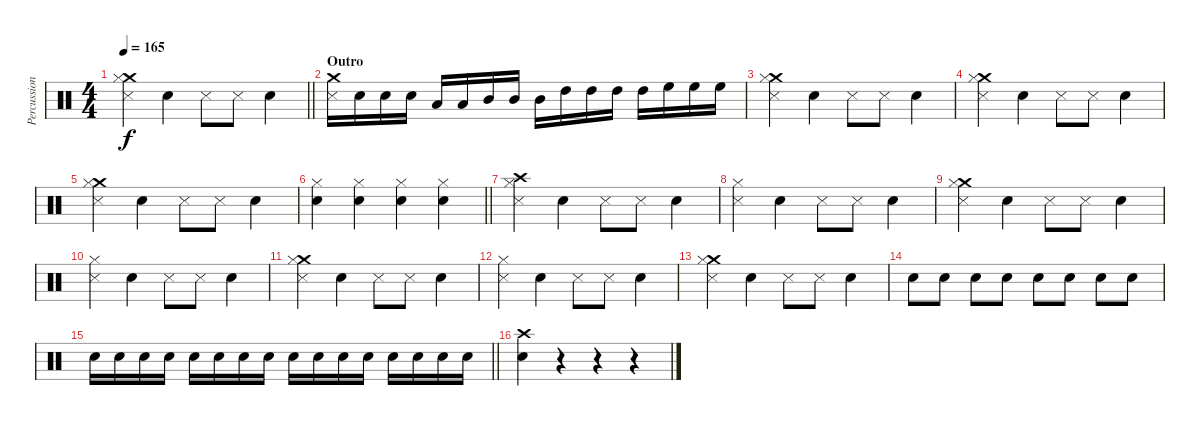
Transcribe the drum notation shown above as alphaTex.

\track ("Percussion" "Percussion") {instrument percussion}
\staff {score}
\articulation defaults
\ts (4 4)
\tempo 165
\clef neutral
\barLineRight lightlight
\ks c
("Metronome (hit)" "Crash medium (hit)" "Hi-Hat (closed)").4{dy f} "Electric Snare (hit)".4 "Metronome (hit)".8 "Metronome (hit)".8 "Electric Snare (hit)".4 |
\section ("" "Outro")
("Metronome (hit)" "Crash medium (hit)").16 "Electric Snare (hit)".16 "Electric Snare (hit)".16 "Electric Snare (hit)".16 "Low Tom (hit)".16 "Low Tom (hit)".16 "Mid Tom (hit)".16 "Mid Tom (hit)".16 "Mid Tom (hit)".16 "High Tom (hit)".16 "High Tom (hit)".16 "High Tom (hit)".16 "High Tom (hit)".16 "High Floor Tom (hit)".16 "High Floor Tom (hit)".16 "High Floor Tom (hit)".16 |
("Metronome (hit)" "Crash medium (hit)" "Hi-Hat (closed)").4 "Electric Snare (hit)".4 "Metronome (hit)".8 "Metronome (hit)".8 "Electric Snare (hit)".4 |
("Metronome (hit)" "Crash medium (hit)" "Hi-Hat (closed)").4 "Electric Snare (hit)".4 "Metronome (hit)".8 "Metronome (hit)".8 "Electric Snare (hit)".4 |
("Metronome (hit)" "Crash medium (hit)" "Hi-Hat (closed)").4 "Electric Snare (hit)".4 "Metronome (hit)".8 "Metronome (hit)".8 "Electric Snare (hit)".4 |
\barLineRight lightlight
("Hi-Hat (closed)" "Electric Snare (hit)").4 ("Hi-Hat (closed)" "Electric Snare (hit)").4 ("Hi-Hat (closed)" "Electric Snare (hit)").4 ("Hi-Hat (closed)" "Electric Snare (hit)").4 |
("Metronome (hit)" "Crash high (hit)" "Hi-Hat (closed)").4 "Electric Snare (hit)".4 "Metronome (hit)".8 "Metronome (hit)".8 "Electric Snare (hit)".4 |
("Metronome (hit)" "Hi-Hat (closed)").4 "Electric Snare (hit)".4 "Metronome (hit)".8 "Metronome (hit)".8 "Electric Snare (hit)".4 |
("Metronome (hit)" "Crash medium (hit)" "Hi-Hat (closed)").4 "Electric Snare (hit)".4 "Metronome (hit)".8 "Metronome (hit)".8 "Electric Snare (hit)".4 |
("Metronome (hit)" "Hi-Hat (closed)").4 "Electric Snare (hit)".4 "Metronome (hit)".8 "Metronome (hit)".8 "Electric Snare (hit)".4 |
("Metronome (hit)" "Crash medium (hit)" "Hi-Hat (closed)").4 "Electric Snare (hit)".4 "Metronome (hit)".8 "Metronome (hit)".8 "Electric Snare (hit)".4 |
("Metronome (hit)" "Hi-Hat (closed)").4 "Electric Snare (hit)".4 "Metronome (hit)".8 "Metronome (hit)".8 "Electric Snare (hit)".4 |
("Metronome (hit)" "Crash medium (hit)" "Hi-Hat (closed)").4 "Electric Snare (hit)".4 "Metronome (hit)".8 "Metronome (hit)".8 "Electric Snare (hit)".4 |
"Electric Snare (hit)".8 "Electric Snare (hit)".8 "Electric Snare (hit)".8 "Electric Snare (hit)".8 "Electric Snare (hit)".8 "Electric Snare (hit)".8 "Electric Snare (hit)".8 "Electric Snare (hit)".8 |
\barLineRight lightlight "Electric Snare (hit)".16 "Electric Snare (hit)".16 "Electric Snare (hit)".16 "Electric Snare (hit)".16 "Electric Snare (hit)".16 "Electric Snare (hit)".16 "Electric Snare (hit)".16 "Electric Snare (hit)".16 "Electric Snare (hit)".16 "Electric Snare (hit)".16 "Electric Snare (hit)".16 "Electric Snare (hit)".16 "Electric Snare (hit)".16 "Electric Snare (hit)".16 "Electric Snare (hit)".16 "Electric Snare (hit)".16
|
("Crash high (hit)" "Electric Snare (hit)").4 r.4 r.4 r.4
